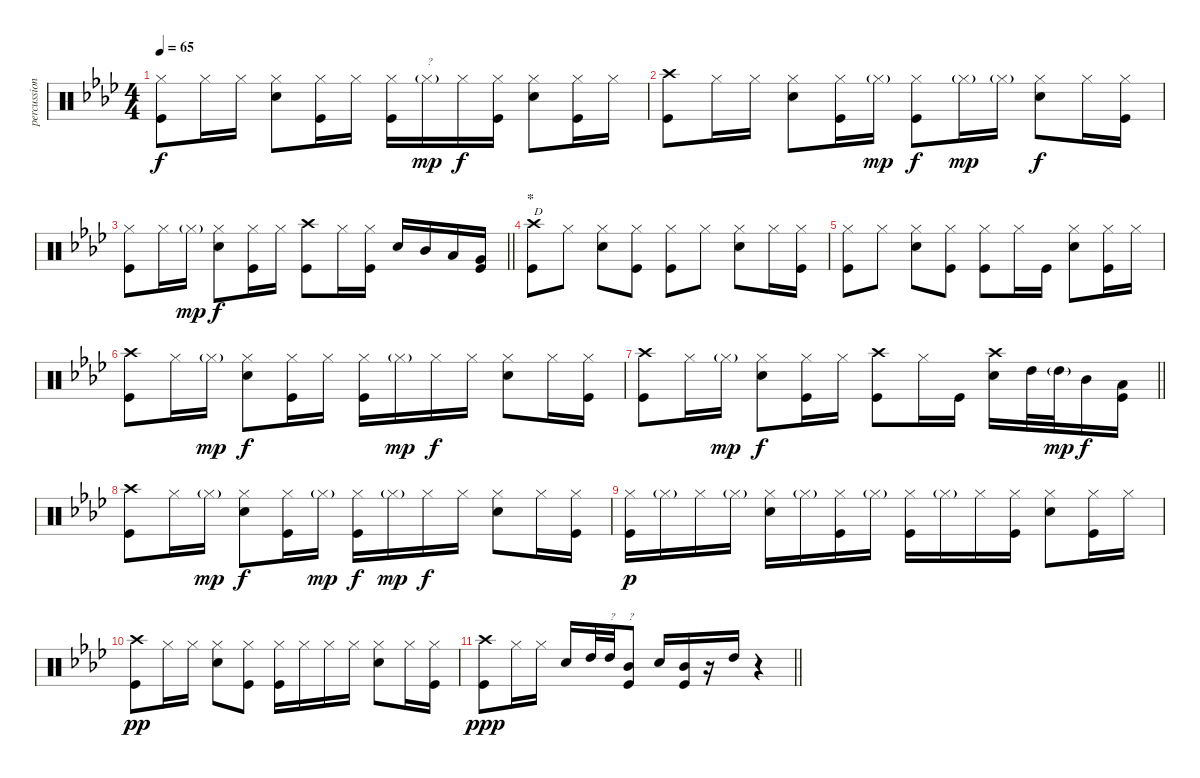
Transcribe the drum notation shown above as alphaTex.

\track ("percussion" "percussion") {instrument percussion}
\staff {score}
\articulation defaults
\ts (4 4)
\tempo 65
\clef neutral
\ks ab
("Hi-Hat (closed)" "Kick (hit)").8{dy f} "Hi-Hat (closed)".16 "Hi-Hat (closed)".16 ("Snare (hit) 2" "Hi-Hat (closed)").8 ("Hi-Hat (closed)" "Kick (hit)").16 "Hi-Hat (closed)".16 ("Hi-Hat (closed)" "Kick (hit)").16 "Hi-Hat (closed)"{g}.16{txt "?" dy mp} "Hi-Hat (closed)".16{dy f} ("Hi-Hat (closed)" "Kick (hit)").16 ("Snare (hit) 2" "Hi-Hat (closed)").8 ("Hi-Hat (closed)" "Kick (hit)").16 "Hi-Hat (closed)".16 |
("Crash high (hit)" "Kick (hit)").8 "Hi-Hat (closed)".16 "Hi-Hat (closed)".16 ("Snare (hit) 2" "Hi-Hat (closed)").8 ("Hi-Hat (closed)" "Kick (hit)").16 "Hi-Hat (closed)"{g}.16{dy mp} ("Hi-Hat (closed)" "Kick (hit)").8{dy f} "Hi-Hat (closed)"{g}.16{dy mp} "Hi-Hat (closed)"{g}.16 ("Snare (hit) 2" "Hi-Hat (closed)").8{dy f} "Hi-Hat (closed)".16 ("Hi-Hat (closed)" "Kick (hit)").16 |
\barLineRight lightlight
("Hi-Hat (closed)" "Kick (hit)").8 "Hi-Hat (closed)".16 "Hi-Hat (closed)"{g}.16{dy mp} ("Snare (hit) 2" "Hi-Hat (closed)").8{dy f} ("Hi-Hat (closed)" "Kick (hit)").16 "Hi-Hat (closed)".16 ("Crash high (hit)" "Kick (hit)").8 "Hi-Hat (closed)".16 ("Hi-Hat (closed)" "Kick (hit)").16 "Snare (hit) 2".16 "Mid Tom (hit)".16 "Low Tom (hit)".16 ("Very Low Tom (hit)" "Kick (hit)").16 |
\section ("" "*")
("Crash high (hit)" "Kick (hit)").8{txt "D"} "Hi-Hat (closed)".8 ("Snare (hit) 2" "Hi-Hat (closed)").8 ("Hi-Hat (closed)" "Kick (hit)").8 ("Hi-Hat (closed)" "Kick (hit)").8 "Hi-Hat (closed)".8 ("Snare (hit) 2" "Hi-Hat (closed)").8 "Hi-Hat (closed)".16 ("Hi-Hat (closed)" "Kick (hit)").16 |
("Hi-Hat (closed)" "Kick (hit)").8 "Hi-Hat (closed)".8 ("Snare (hit) 2" "Hi-Hat (closed)").8 ("Hi-Hat (closed)" "Kick (hit)").8 ("Hi-Hat (closed)" "Kick (hit)").8 "Hi-Hat (closed)".16 "Kick (hit)".16 ("Snare (hit) 2" "Hi-Hat (closed)").8 ("Hi-Hat (closed)" "Kick (hit)").16 "Hi-Hat (closed)".16 |
("Crash high (hit)" "Kick (hit)").8 "Hi-Hat (closed)".16 "Hi-Hat (closed)"{g}.16{dy mp} ("Snare (hit) 2" "Hi-Hat (closed)").8{dy f} ("Hi-Hat (closed)" "Kick (hit)").16 "Hi-Hat (closed)".16 ("Hi-Hat (closed)" "Kick (hit)").16 "Hi-Hat (closed)"{g}.16{dy mp} "Hi-Hat (closed)".16{dy f} "Hi-Hat (closed)".16 ("Snare (hit) 2" "Hi-Hat (closed)").8 "Hi-Hat (closed)".16 ("Hi-Hat (closed)" "Kick (hit)").16 |
\barLineRight lightlight
("Crash high (hit)" "Kick (hit)").8 "Hi-Hat (closed)".16 "Hi-Hat (closed)"{g}.16{dy mp} ("Snare (hit) 2" "Hi-Hat (closed)").8{dy f} ("Hi-Hat (closed)" "Kick (hit)").16 "Hi-Hat (closed)".16 ("Crash high (hit)" "Kick (hit)").8 "Hi-Hat (closed)".16 "Kick (hit)".16 ("Crash high (hit)" "Snare (hit) 2").16 "High Tom (hit)".32 "High Tom (hit)"{g}.32{dy mp} "Mid Tom (hit)".16{dy f} ("Low Tom (hit)" "Kick (hit)").16 |
("Crash high (hit)" "Kick (hit)").8 "Hi-Hat (closed)".16 "Hi-Hat (closed)"{g}.16{dy mp} ("Snare (hit) 2" "Hi-Hat (closed)").8{dy f} ("Hi-Hat (closed)" "Kick (hit)").16 "Hi-Hat (closed)"{g}.16{dy mp} ("Hi-Hat (closed)" "Kick (hit)").16{dy f} "Hi-Hat (closed)"{g}.16{dy mp} "Hi-Hat (closed)".16{dy f} "Hi-Hat (closed)".16 ("Snare (hit) 2" "Hi-Hat (closed)").8 "Hi-Hat (closed)".16 ("Hi-Hat (closed)" "Kick (hit)").16 |
("Hi-Hat (closed)" "Kick (hit)").16{dy p} "Hi-Hat (closed)"{g}.16 "Hi-Hat (closed)".16 "Hi-Hat (closed)"{g}.16 ("Snare (hit) 2" "Hi-Hat (closed)").16 "Hi-Hat (closed)"{g}.16 ("Hi-Hat (closed)" "Kick (hit)").16 "Hi-Hat (closed)"{g}.16 ("Hi-Hat (closed)" "Kick (hit)").16 "Hi-Hat (closed)"{g}.16 "Hi-Hat (closed)".16 ("Hi-Hat (closed)" "Kick (hit)").16 ("Snare (hit) 2" "Hi-Hat (closed)").8 ("Hi-Hat (closed)" "Kick (hit)").16 "Hi-Hat (closed)".16 |
("Crash high (hit)" "Kick (hit)").8{dy pp} "Hi-Hat (closed)".16 "Hi-Hat (closed)".16 ("Snare (hit) 2" "Hi-Hat (closed)").8 ("Hi-Hat (closed)" "Kick (hit)").8 ("Hi-Hat (closed)" "Kick (hit)").16 "Hi-Hat (closed)".16 "Hi-Hat (closed)".16 "Hi-Hat (closed)".16 ("Snare (hit) 2" "Hi-Hat (closed)").8 "Hi-Hat (closed)".16 ("Hi-Hat (closed)" "Kick (hit)").16 |
\barLineRight lightlight
("Crash high (hit)" "Kick (hit)").8{dy ppp} "Hi-Hat (closed)".16 "Hi-Hat (closed)".16 "Snare (hit) 2".16 "High Tom (hit)".32 "High Tom (hit)".32{txt "?"} ("Mid Tom (hit)" "Kick (hit)").8{txt "?"} "Snare (hit) 2".16 ("Mid Tom (hit)" "Kick (hit)").16 r.16 "High Tom (hit)".16 r.4
